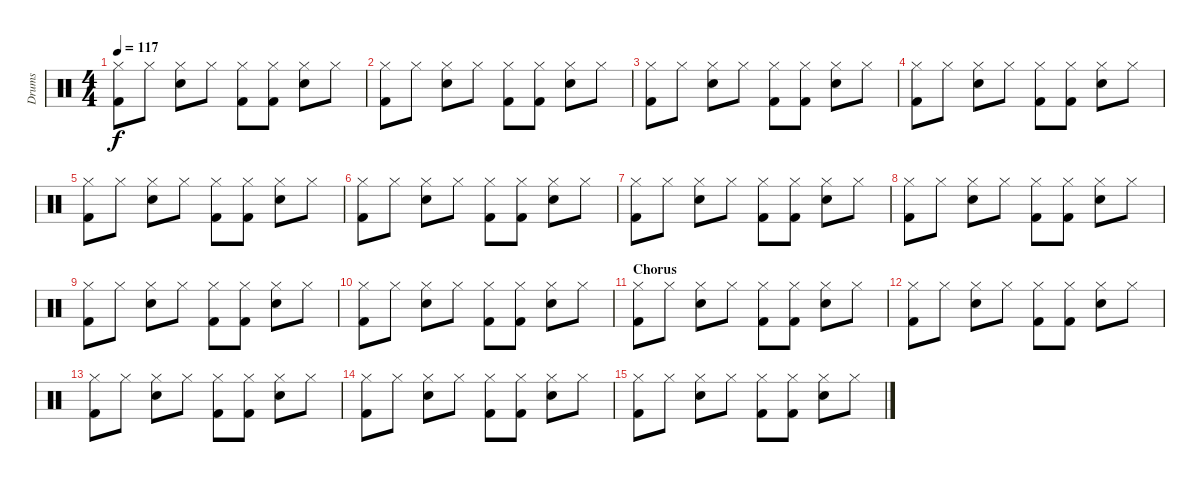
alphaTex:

\track ("Drums" "Drums") {instrument percussion}
\staff {score}
\articulation defaults
\ts (4 4)
\tempo 117
\clef neutral
\ks c
("Hi-Hat (closed)" "Kick (hit) 2").8{dy f} "Hi-Hat (closed)".8 ("Hi-Hat (closed)" "Snare (hit) 2").8 "Hi-Hat (closed)".8 ("Hi-Hat (closed)" "Kick (hit) 2").8 ("Hi-Hat (closed)" "Kick (hit) 2").8 ("Hi-Hat (closed)" "Snare (hit) 2").8 "Hi-Hat (closed)".8 |
("Hi-Hat (closed)" "Kick (hit) 2").8 "Hi-Hat (closed)".8 ("Hi-Hat (closed)" "Snare (hit) 2").8 "Hi-Hat (closed)".8 ("Hi-Hat (closed)" "Kick (hit) 2").8 ("Hi-Hat (closed)" "Kick (hit) 2").8 ("Hi-Hat (closed)" "Snare (hit) 2").8 "Hi-Hat (closed)".8 |
("Hi-Hat (closed)" "Kick (hit) 2").8 "Hi-Hat (closed)".8 ("Hi-Hat (closed)" "Snare (hit) 2").8 "Hi-Hat (closed)".8 ("Hi-Hat (closed)" "Kick (hit) 2").8 ("Hi-Hat (closed)" "Kick (hit) 2").8 ("Hi-Hat (closed)" "Snare (hit) 2").8 "Hi-Hat (closed)".8 |
("Hi-Hat (closed)" "Kick (hit) 2").8 "Hi-Hat (closed)".8 ("Hi-Hat (closed)" "Snare (hit) 2").8 "Hi-Hat (closed)".8 ("Hi-Hat (closed)" "Kick (hit) 2").8 ("Hi-Hat (closed)" "Kick (hit) 2").8 ("Hi-Hat (closed)" "Snare (hit) 2").8 "Hi-Hat (closed)".8 |
("Hi-Hat (closed)" "Kick (hit) 2").8 "Hi-Hat (closed)".8 ("Hi-Hat (closed)" "Snare (hit) 2").8 "Hi-Hat (closed)".8 ("Hi-Hat (closed)" "Kick (hit) 2").8 ("Hi-Hat (closed)" "Kick (hit) 2").8 ("Hi-Hat (closed)" "Snare (hit) 2").8 "Hi-Hat (closed)".8 |
("Hi-Hat (closed)" "Kick (hit) 2").8 "Hi-Hat (closed)".8 ("Hi-Hat (closed)" "Snare (hit) 2").8 "Hi-Hat (closed)".8 ("Hi-Hat (closed)" "Kick (hit) 2").8 ("Hi-Hat (closed)" "Kick (hit) 2").8 ("Hi-Hat (closed)" "Snare (hit) 2").8 "Hi-Hat (closed)".8 |
("Hi-Hat (closed)" "Kick (hit) 2").8 "Hi-Hat (closed)".8 ("Hi-Hat (closed)" "Snare (hit) 2").8 "Hi-Hat (closed)".8 ("Hi-Hat (closed)" "Kick (hit) 2").8 ("Hi-Hat (closed)" "Kick (hit) 2").8 ("Hi-Hat (closed)" "Snare (hit) 2").8 "Hi-Hat (closed)".8 |
("Hi-Hat (closed)" "Kick (hit) 2").8 "Hi-Hat (closed)".8 ("Hi-Hat (closed)" "Snare (hit) 2").8 "Hi-Hat (closed)".8 ("Hi-Hat (closed)" "Kick (hit) 2").8 ("Hi-Hat (closed)" "Kick (hit) 2").8 ("Hi-Hat (closed)" "Snare (hit) 2").8 "Hi-Hat (closed)".8 |
("Hi-Hat (closed)" "Kick (hit) 2").8 "Hi-Hat (closed)".8 ("Hi-Hat (closed)" "Snare (hit) 2").8 "Hi-Hat (closed)".8 ("Hi-Hat (closed)" "Kick (hit) 2").8 ("Hi-Hat (closed)" "Kick (hit) 2").8 ("Hi-Hat (closed)" "Snare (hit) 2").8 "Hi-Hat (closed)".8 |
("Hi-Hat (closed)" "Kick (hit) 2").8 "Hi-Hat (closed)".8 ("Hi-Hat (closed)" "Snare (hit) 2").8 "Hi-Hat (closed)".8 ("Hi-Hat (closed)" "Kick (hit) 2").8 ("Hi-Hat (closed)" "Kick (hit) 2").8 ("Hi-Hat (closed)" "Snare (hit) 2").8 "Hi-Hat (closed)".8 |
\section ("" "Chorus")
("Hi-Hat (closed)" "Kick (hit) 2").8 "Hi-Hat (closed)".8 ("Hi-Hat (closed)" "Snare (hit) 2").8 "Hi-Hat (closed)".8 ("Hi-Hat (closed)" "Kick (hit) 2").8 ("Hi-Hat (closed)" "Kick (hit) 2").8 ("Hi-Hat (closed)" "Snare (hit) 2").8 "Hi-Hat (closed)".8 |
("Hi-Hat (closed)" "Kick (hit) 2").8 "Hi-Hat (closed)".8 ("Hi-Hat (closed)" "Snare (hit) 2").8 "Hi-Hat (closed)".8 ("Hi-Hat (closed)" "Kick (hit) 2").8 ("Hi-Hat (closed)" "Kick (hit) 2").8 ("Hi-Hat (closed)" "Snare (hit) 2").8 "Hi-Hat (closed)".8 |
("Hi-Hat (closed)" "Kick (hit) 2").8 "Hi-Hat (closed)".8 ("Hi-Hat (closed)" "Snare (hit) 2").8 "Hi-Hat (closed)".8 ("Hi-Hat (closed)" "Kick (hit) 2").8 ("Hi-Hat (closed)" "Kick (hit) 2").8 ("Hi-Hat (closed)" "Snare (hit) 2").8 "Hi-Hat (closed)".8 |
("Hi-Hat (closed)" "Kick (hit) 2").8 "Hi-Hat (closed)".8 ("Hi-Hat (closed)" "Snare (hit) 2").8 "Hi-Hat (closed)".8 ("Hi-Hat (closed)" "Kick (hit) 2").8 ("Hi-Hat (closed)" "Kick (hit) 2").8 ("Hi-Hat (closed)" "Snare (hit) 2").8 "Hi-Hat (closed)".8 |
("Hi-Hat (closed)" "Kick (hit) 2").8 "Hi-Hat (closed)".8 ("Hi-Hat (closed)" "Snare (hit) 2").8 "Hi-Hat (closed)".8 ("Hi-Hat (closed)" "Kick (hit) 2").8 ("Hi-Hat (closed)" "Kick (hit) 2").8 ("Hi-Hat (closed)" "Snare (hit) 2").8 "Hi-Hat (closed)".8
